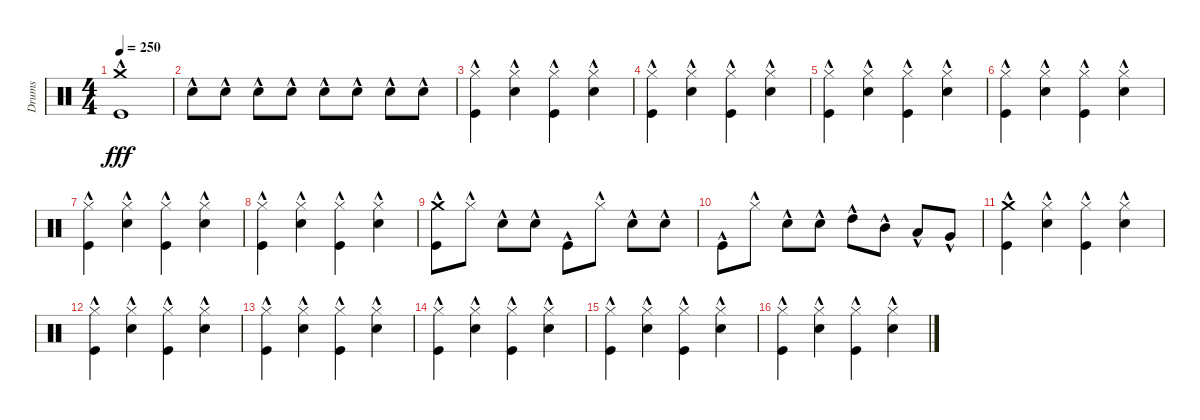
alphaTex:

\track ("Drums" "Drums") {instrument percussion}
\staff {score}
\articulation defaults
\ts (4 4)
\tempo 250
\clef neutral
\ks c
("Crash medium (hit)"{hac} "Kick (hit)"{hac}).1{dy fff} |
"Snare (hit) 2"{hac}.8 "Snare (hit) 2"{hac}.8 "Snare (hit) 2"{hac}.8 "Snare (hit) 2"{hac}.8 "Snare (hit) 2"{hac}.8 "Snare (hit) 2"{hac}.8 "Snare (hit) 2"{hac}.8 "Snare (hit) 2"{hac}.8 |
("Hi-Hat (closed)"{hac} "Kick (hit)"{hac}).4 ("Hi-Hat (closed)"{hac} "Snare (hit) 2"{hac}).4 ("Hi-Hat (closed)"{hac} "Kick (hit)"{hac}).4 ("Hi-Hat (closed)"{hac} "Snare (hit) 2"{hac}).4 |
("Hi-Hat (closed)"{hac} "Kick (hit)"{hac}).4 ("Hi-Hat (closed)"{hac} "Snare (hit) 2"{hac}).4 ("Hi-Hat (closed)"{hac} "Kick (hit)"{hac}).4 ("Hi-Hat (closed)"{hac} "Snare (hit) 2"{hac}).4 |
("Hi-Hat (closed)"{hac} "Kick (hit)"{hac}).4 ("Hi-Hat (closed)"{hac} "Snare (hit) 2"{hac}).4 ("Hi-Hat (closed)"{hac} "Kick (hit)"{hac}).4 ("Hi-Hat (closed)"{hac} "Snare (hit) 2"{hac}).4 |
("Hi-Hat (closed)"{hac} "Kick (hit)"{hac}).4 ("Hi-Hat (closed)"{hac} "Snare (hit) 2"{hac}).4 ("Hi-Hat (closed)"{hac} "Kick (hit)"{hac}).4 ("Hi-Hat (closed)"{hac} "Snare (hit) 2"{hac}).4 |
("Hi-Hat (closed)"{hac} "Kick (hit)"{hac}).4 ("Hi-Hat (closed)"{hac} "Snare (hit) 2"{hac}).4 ("Hi-Hat (closed)"{hac} "Kick (hit)"{hac}).4 ("Hi-Hat (closed)"{hac} "Snare (hit) 2"{hac}).4 |
("Hi-Hat (closed)"{hac} "Kick (hit)"{hac}).4 ("Hi-Hat (closed)"{hac} "Snare (hit) 2"{hac}).4 ("Hi-Hat (closed)"{hac} "Kick (hit)"{hac}).4 ("Hi-Hat (closed)"{hac} "Snare (hit) 2"{hac}).4 |
("Crash medium (hit)"{hac} "Kick (hit)"{hac}).8 "Hi-Hat (closed)"{hac}.8 "Snare (hit) 2"{hac}.8 "Snare (hit) 2"{hac}.8 "Kick (hit)"{hac}.8 "Hi-Hat (closed)"{hac}.8 "Snare (hit) 2"{hac}.8 "Snare (hit) 2"{hac}.8 |
"Kick (hit)"{hac}.8 "Hi-Hat (closed)"{hac}.8 "Snare (hit) 2"{hac}.8 "Snare (hit) 2"{hac}.8 "High Tom (hit)"{hac}.8 "Mid Tom (hit)"{hac}.8 "Low Tom (hit)"{hac}.8 "Very Low Tom (hit)"{hac}.8 |
("Crash medium (hit)"{hac} "Kick (hit)"{hac}).4 ("Hi-Hat (closed)"{hac} "Snare (hit) 2"{hac}).4 ("Hi-Hat (closed)"{hac} "Kick (hit)"{hac}).4 ("Hi-Hat (closed)"{hac} "Snare (hit) 2"{hac}).4 |
("Hi-Hat (closed)"{hac} "Kick (hit)"{hac}).4 ("Hi-Hat (closed)"{hac} "Snare (hit) 2"{hac}).4 ("Hi-Hat (closed)"{hac} "Kick (hit)"{hac}).4 ("Hi-Hat (closed)"{hac} "Snare (hit) 2"{hac}).4 |
("Hi-Hat (closed)"{hac} "Kick (hit)"{hac}).4 ("Hi-Hat (closed)"{hac} "Snare (hit) 2"{hac}).4 ("Hi-Hat (closed)"{hac} "Kick (hit)"{hac}).4 ("Hi-Hat (closed)"{hac} "Snare (hit) 2"{hac}).4 |
("Hi-Hat (closed)"{hac} "Kick (hit)"{hac}).4 ("Hi-Hat (closed)"{hac} "Snare (hit) 2"{hac}).4 ("Hi-Hat (closed)"{hac} "Kick (hit)"{hac}).4 ("Hi-Hat (closed)"{hac} "Snare (hit) 2"{hac}).4 |
("Hi-Hat (closed)"{hac} "Kick (hit)"{hac}).4 ("Hi-Hat (closed)"{hac} "Snare (hit) 2"{hac}).4 ("Hi-Hat (closed)"{hac} "Kick (hit)"{hac}).4 ("Hi-Hat (closed)"{hac} "Snare (hit) 2"{hac}).4 |
("Hi-Hat (closed)"{hac} "Kick (hit)"{hac}).4 ("Hi-Hat (closed)"{hac} "Snare (hit) 2"{hac}).4 ("Hi-Hat (closed)"{hac} "Kick (hit)"{hac}).4 ("Hi-Hat (closed)"{hac} "Snare (hit) 2"{hac}).4
